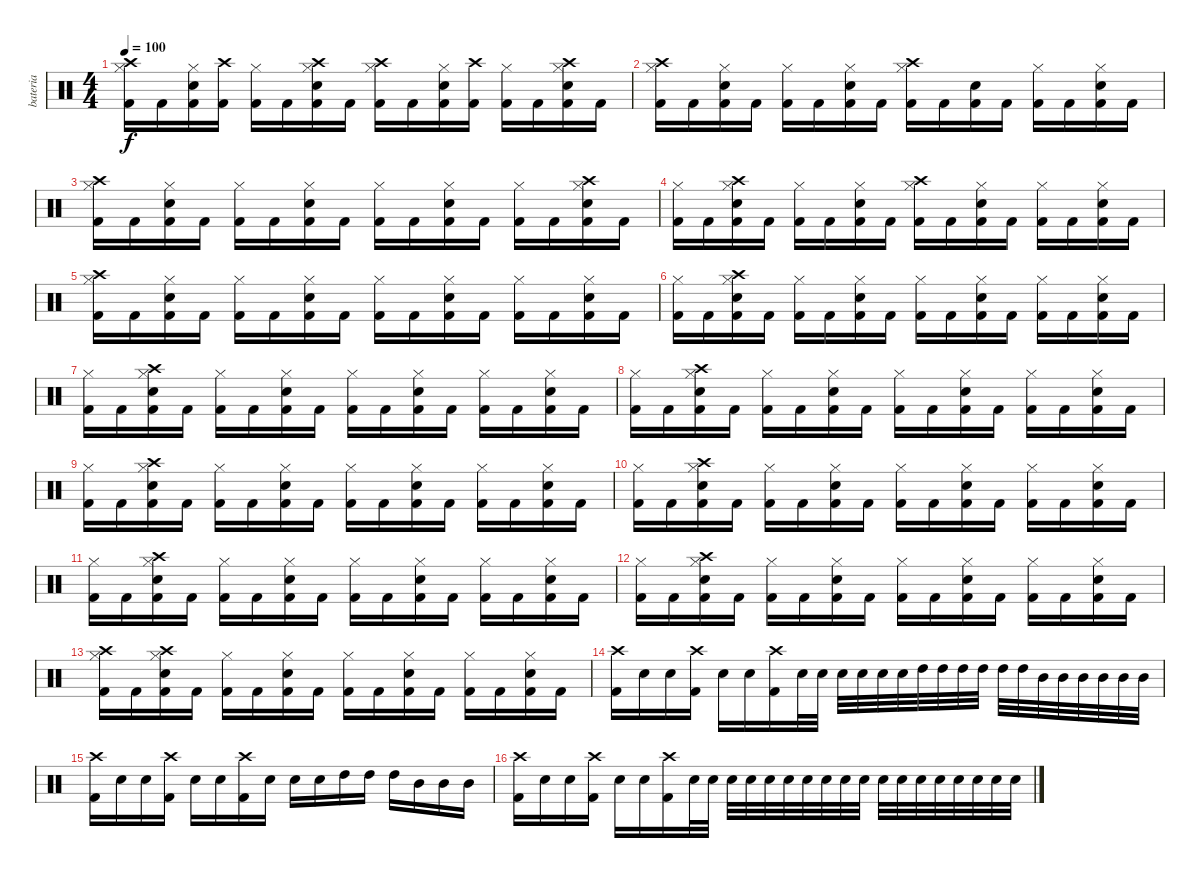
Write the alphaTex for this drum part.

\track ("bateria" "bateria") {instrument percussion}
\staff {score}
\articulation defaults
\ts (4 4)
\tempo 100
\clef neutral
\ks c
("Kick (hit) 2" "Hi-Hat (closed)" "Crash high (hit)").16{dy f} "Kick (hit) 2".16 ("Kick (hit) 2" "Electric Snare (hit)" "Hi-Hat (closed)").16 ("Kick (hit) 2" "Crash high (hit)").16 ("Kick (hit) 2" "Hi-Hat (closed)").16 "Kick (hit) 2".16 ("Kick (hit) 2" "Electric Snare (hit)" "Hi-Hat (closed)" "Crash high (hit)").16 "Kick (hit) 2".16 ("Kick (hit) 2" "Hi-Hat (closed)" "Crash high (hit)").16 "Kick (hit) 2".16 ("Kick (hit) 2" "Electric Snare (hit)" "Hi-Hat (closed)").16 ("Kick (hit) 2" "Crash high (hit)").16 ("Kick (hit) 2" "Hi-Hat (closed)").16 "Kick (hit) 2".16 ("Kick (hit) 2" "Electric Snare (hit)" "Hi-Hat (closed)" "Crash high (hit)").16 "Kick (hit) 2".16 |
("Kick (hit) 2" "Hi-Hat (closed)" "Crash high (hit)").16 "Kick (hit) 2".16 ("Kick (hit) 2" "Electric Snare (hit)" "Hi-Hat (closed)").16 "Kick (hit) 2".16 ("Kick (hit) 2" "Hi-Hat (closed)").16 "Kick (hit) 2".16 ("Kick (hit) 2" "Electric Snare (hit)" "Hi-Hat (closed)").16 "Kick (hit) 2".16 ("Kick (hit) 2" "Hi-Hat (closed)" "Crash high (hit)").16 "Kick (hit) 2".16 ("Kick (hit) 2" "Electric Snare (hit)").16 "Kick (hit) 2".16 ("Kick (hit) 2" "Hi-Hat (closed)").16 "Kick (hit) 2".16 ("Kick (hit) 2" "Electric Snare (hit)" "Hi-Hat (closed)").16 "Kick (hit) 2".16 |
("Kick (hit) 2" "Hi-Hat (closed)" "Crash high (hit)").16 "Kick (hit) 2".16 ("Kick (hit) 2" "Electric Snare (hit)" "Hi-Hat (closed)").16 "Kick (hit) 2".16 ("Kick (hit) 2" "Hi-Hat (closed)").16 "Kick (hit) 2".16 ("Kick (hit) 2" "Electric Snare (hit)" "Hi-Hat (closed)").16 "Kick (hit) 2".16 ("Kick (hit) 2" "Hi-Hat (closed)").16 "Kick (hit) 2".16 ("Kick (hit) 2" "Electric Snare (hit)" "Hi-Hat (closed)").16 "Kick (hit) 2".16 ("Kick (hit) 2" "Hi-Hat (closed)").16 "Kick (hit) 2".16 ("Kick (hit) 2" "Electric Snare (hit)" "Hi-Hat (closed)" "Crash high (hit)").16 "Kick (hit) 2".16 |
("Kick (hit) 2" "Hi-Hat (closed)").16 "Kick (hit) 2".16 ("Kick (hit) 2" "Electric Snare (hit)" "Hi-Hat (closed)" "Crash high (hit)").16 "Kick (hit) 2".16 ("Kick (hit) 2" "Hi-Hat (closed)").16 "Kick (hit) 2".16 ("Kick (hit) 2" "Electric Snare (hit)" "Hi-Hat (closed)").16 "Kick (hit) 2".16 ("Kick (hit) 2" "Hi-Hat (closed)" "Crash high (hit)").16 "Kick (hit) 2".16 ("Kick (hit) 2" "Electric Snare (hit)" "Hi-Hat (closed)").16 "Kick (hit) 2".16 ("Kick (hit) 2" "Hi-Hat (closed)").16 "Kick (hit) 2".16 ("Kick (hit) 2" "Electric Snare (hit)" "Hi-Hat (closed)").16 "Kick (hit) 2".16 |
("Kick (hit) 2" "Hi-Hat (closed)" "Crash high (hit)").16 "Kick (hit) 2".16 ("Kick (hit) 2" "Electric Snare (hit)" "Hi-Hat (closed)").16 "Kick (hit) 2".16 ("Kick (hit) 2" "Hi-Hat (closed)").16 "Kick (hit) 2".16 ("Kick (hit) 2" "Electric Snare (hit)" "Hi-Hat (closed)").16 "Kick (hit) 2".16 ("Kick (hit) 2" "Hi-Hat (closed)").16 "Kick (hit) 2".16 ("Kick (hit) 2" "Electric Snare (hit)" "Hi-Hat (closed)").16 "Kick (hit) 2".16 ("Kick (hit) 2" "Hi-Hat (closed)").16 "Kick (hit) 2".16 ("Kick (hit) 2" "Electric Snare (hit)" "Hi-Hat (closed)").16 "Kick (hit) 2".16 |
("Kick (hit) 2" "Hi-Hat (closed)").16 "Kick (hit) 2".16 ("Kick (hit) 2" "Electric Snare (hit)" "Hi-Hat (closed)" "Crash high (hit)").16 "Kick (hit) 2".16 ("Kick (hit) 2" "Hi-Hat (closed)").16 "Kick (hit) 2".16 ("Kick (hit) 2" "Electric Snare (hit)" "Hi-Hat (closed)").16 "Kick (hit) 2".16 ("Kick (hit) 2" "Hi-Hat (closed)").16 "Kick (hit) 2".16 ("Kick (hit) 2" "Electric Snare (hit)" "Hi-Hat (closed)").16 "Kick (hit) 2".16 ("Kick (hit) 2" "Hi-Hat (closed)").16 "Kick (hit) 2".16 ("Kick (hit) 2" "Electric Snare (hit)" "Hi-Hat (closed)").16 "Kick (hit) 2".16 |
("Kick (hit) 2" "Hi-Hat (closed)").16 "Kick (hit) 2".16 ("Kick (hit) 2" "Electric Snare (hit)" "Hi-Hat (closed)" "Crash high (hit)").16 "Kick (hit) 2".16 ("Kick (hit) 2" "Hi-Hat (closed)").16 "Kick (hit) 2".16 ("Kick (hit) 2" "Electric Snare (hit)" "Hi-Hat (closed)").16 "Kick (hit) 2".16 ("Kick (hit) 2" "Hi-Hat (closed)").16 "Kick (hit) 2".16 ("Kick (hit) 2" "Electric Snare (hit)" "Hi-Hat (closed)").16 "Kick (hit) 2".16 ("Kick (hit) 2" "Hi-Hat (closed)").16 "Kick (hit) 2".16 ("Kick (hit) 2" "Electric Snare (hit)" "Hi-Hat (closed)").16 "Kick (hit) 2".16 |
("Kick (hit) 2" "Hi-Hat (closed)").16 "Kick (hit) 2".16 ("Kick (hit) 2" "Electric Snare (hit)" "Hi-Hat (closed)" "Crash high (hit)").16 "Kick (hit) 2".16 ("Kick (hit) 2" "Hi-Hat (closed)").16 "Kick (hit) 2".16 ("Kick (hit) 2" "Electric Snare (hit)" "Hi-Hat (closed)").16 "Kick (hit) 2".16 ("Kick (hit) 2" "Hi-Hat (closed)").16 "Kick (hit) 2".16 ("Kick (hit) 2" "Electric Snare (hit)" "Hi-Hat (closed)").16 "Kick (hit) 2".16 ("Kick (hit) 2" "Hi-Hat (closed)").16 "Kick (hit) 2".16 ("Kick (hit) 2" "Electric Snare (hit)" "Hi-Hat (closed)").16 "Kick (hit) 2".16 |
("Kick (hit) 2" "Hi-Hat (closed)").16 "Kick (hit) 2".16 ("Kick (hit) 2" "Electric Snare (hit)" "Hi-Hat (closed)" "Crash high (hit)").16 "Kick (hit) 2".16 ("Kick (hit) 2" "Hi-Hat (closed)").16 "Kick (hit) 2".16 ("Kick (hit) 2" "Electric Snare (hit)" "Hi-Hat (closed)").16 "Kick (hit) 2".16 ("Kick (hit) 2" "Hi-Hat (closed)").16 "Kick (hit) 2".16 ("Kick (hit) 2" "Electric Snare (hit)" "Hi-Hat (closed)").16 "Kick (hit) 2".16 ("Kick (hit) 2" "Hi-Hat (closed)").16 "Kick (hit) 2".16 ("Kick (hit) 2" "Electric Snare (hit)" "Hi-Hat (closed)").16 "Kick (hit) 2".16 |
("Kick (hit) 2" "Hi-Hat (closed)").16 "Kick (hit) 2".16 ("Kick (hit) 2" "Electric Snare (hit)" "Hi-Hat (closed)" "Crash high (hit)").16 "Kick (hit) 2".16 ("Kick (hit) 2" "Hi-Hat (closed)").16 "Kick (hit) 2".16 ("Kick (hit) 2" "Electric Snare (hit)" "Hi-Hat (closed)").16 "Kick (hit) 2".16 ("Kick (hit) 2" "Hi-Hat (closed)").16 "Kick (hit) 2".16 ("Kick (hit) 2" "Electric Snare (hit)" "Hi-Hat (closed)").16 "Kick (hit) 2".16 ("Kick (hit) 2" "Hi-Hat (closed)").16 "Kick (hit) 2".16 ("Kick (hit) 2" "Electric Snare (hit)" "Hi-Hat (closed)").16 "Kick (hit) 2".16 |
("Kick (hit) 2" "Hi-Hat (closed)").16 "Kick (hit) 2".16 ("Kick (hit) 2" "Electric Snare (hit)" "Hi-Hat (closed)" "Crash high (hit)").16 "Kick (hit) 2".16 ("Kick (hit) 2" "Hi-Hat (closed)").16 "Kick (hit) 2".16 ("Kick (hit) 2" "Electric Snare (hit)" "Hi-Hat (closed)").16 "Kick (hit) 2".16 ("Kick (hit) 2" "Hi-Hat (closed)").16 "Kick (hit) 2".16 ("Kick (hit) 2" "Electric Snare (hit)" "Hi-Hat (closed)").16 "Kick (hit) 2".16 ("Kick (hit) 2" "Hi-Hat (closed)").16 "Kick (hit) 2".16 ("Kick (hit) 2" "Electric Snare (hit)" "Hi-Hat (closed)").16 "Kick (hit) 2".16 |
("Kick (hit) 2" "Hi-Hat (closed)").16 "Kick (hit) 2".16 ("Kick (hit) 2" "Electric Snare (hit)" "Hi-Hat (closed)" "Crash high (hit)").16 "Kick (hit) 2".16 ("Kick (hit) 2" "Hi-Hat (closed)").16 "Kick (hit) 2".16 ("Kick (hit) 2" "Electric Snare (hit)" "Hi-Hat (closed)").16 "Kick (hit) 2".16 ("Kick (hit) 2" "Hi-Hat (closed)").16 "Kick (hit) 2".16 ("Kick (hit) 2" "Electric Snare (hit)" "Hi-Hat (closed)").16 "Kick (hit) 2".16 ("Kick (hit) 2" "Hi-Hat (closed)").16 "Kick (hit) 2".16 ("Kick (hit) 2" "Electric Snare (hit)" "Hi-Hat (closed)").16 "Kick (hit) 2".16 |
("Kick (hit) 2" "Hi-Hat (closed)" "Crash high (hit)").16 "Kick (hit) 2".16 ("Kick (hit) 2" "Electric Snare (hit)" "Hi-Hat (closed)" "Crash high (hit)").16 "Kick (hit) 2".16 ("Kick (hit) 2" "Hi-Hat (closed)").16 "Kick (hit) 2".16 ("Kick (hit) 2" "Electric Snare (hit)" "Hi-Hat (closed)").16 "Kick (hit) 2".16 ("Kick (hit) 2" "Hi-Hat (closed)").16 "Kick (hit) 2".16 ("Kick (hit) 2" "Electric Snare (hit)" "Hi-Hat (closed)").16 "Kick (hit) 2".16 ("Kick (hit) 2" "Hi-Hat (closed)").16 "Kick (hit) 2".16 ("Kick (hit) 2" "Electric Snare (hit)" "Hi-Hat (closed)").16 "Kick (hit) 2".16 |
("Kick (hit) 2" "Crash high (hit)").16 "Electric Snare (hit)".16 "Electric Snare (hit)".16 ("Kick (hit) 2" "Crash high (hit)").16 "Electric Snare (hit)".16 "Electric Snare (hit)".16 ("Kick (hit) 2" "Crash high (hit)").16 "Electric Snare (hit)".32 "Electric Snare (hit)".32 "Electric Snare (hit)".32 "Electric Snare (hit)".32 "Electric Snare (hit)".32 "Electric Snare (hit)".32 "High Tom (hit)".32 "High Tom (hit)".32 "High Tom (hit)".32 "High Tom (hit)".32 "High Tom (hit)".32 "High Tom (hit)".32 "Mid Tom (hit)".32 "Mid Tom (hit)".32 "Mid Tom (hit)".32 "Mid Tom (hit)".32 "Mid Tom (hit)".32 "Mid Tom (hit)".32 |
("Kick (hit) 2" "Crash high (hit)").16 "Electric Snare (hit)".16 "Electric Snare (hit)".16 ("Kick (hit) 2" "Crash high (hit)").16 "Electric Snare (hit)".16 "Electric Snare (hit)".16 ("Kick (hit) 2" "Crash high (hit)").16 "Electric Snare (hit)".16 "Electric Snare (hit)".16 "Electric Snare (hit)".16 "High Tom (hit)".16 "High Tom (hit)".16 "High Tom (hit)".16 "Mid Tom (hit)".16 "Mid Tom (hit)".16 "Mid Tom (hit)".16 |
("Kick (hit) 2" "Crash high (hit)").16 "Electric Snare (hit)".16 "Electric Snare (hit)".16 ("Kick (hit) 2" "Crash high (hit)").16 "Electric Snare (hit)".16 "Electric Snare (hit)".16 ("Kick (hit) 2" "Crash high (hit)").16 "Electric Snare (hit)".32 "Electric Snare (hit)".32 "Electric Snare (hit)".32 "Electric Snare (hit)".32 "Electric Snare (hit)".32 "Electric Snare (hit)".32 "Electric Snare (hit)".32 "Electric Snare (hit)".32 "Electric Snare (hit)".32 "Electric Snare (hit)".32 "Electric Snare (hit)".32 "Electric Snare (hit)".32 "Electric Snare (hit)".32 "Electric Snare (hit)".32 "Electric Snare (hit)".32 "Electric Snare (hit)".32 "Electric Snare (hit)".32 "Electric Snare (hit)".32
